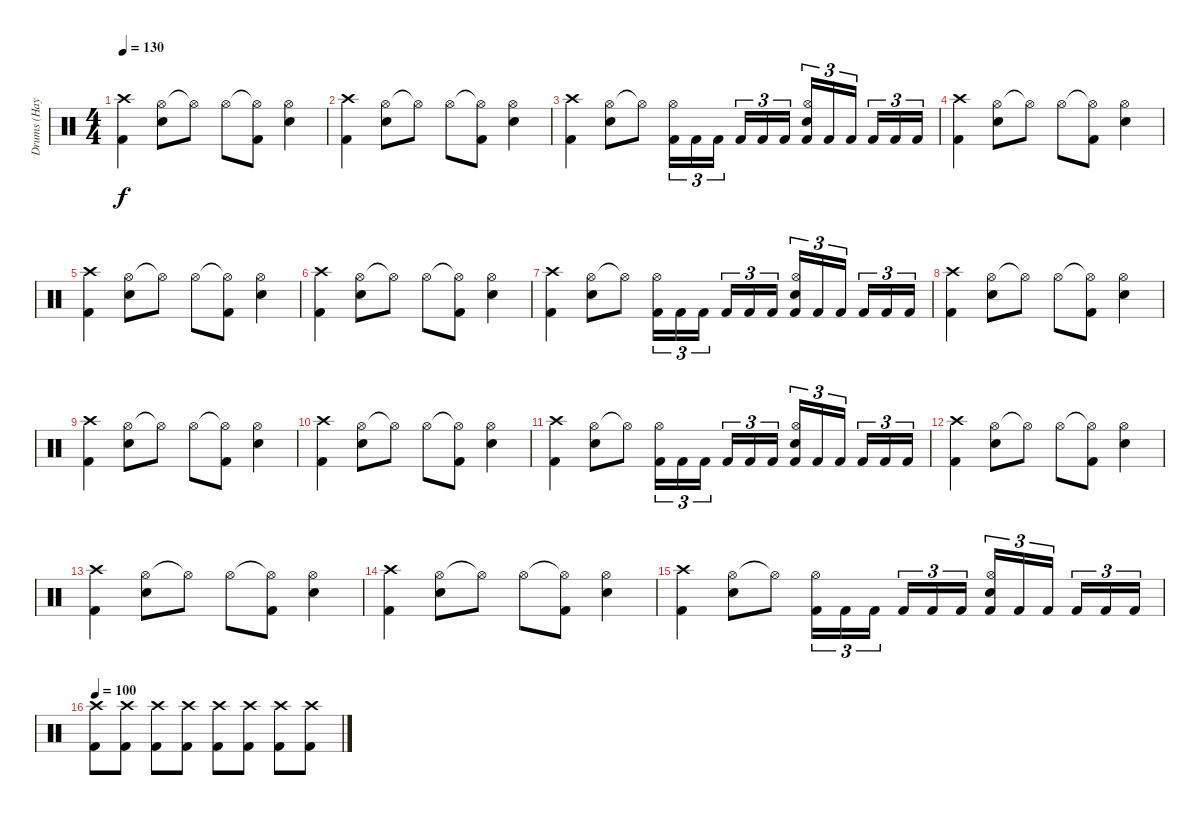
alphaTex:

\track ("Drums (Hayden)" "Drums (Hay") {instrument percussion}
\staff {score}
\articulation defaults
\ts (4 4)
\tempo 130
\clef neutral
\ks c
("Crash high (hit)" "Kick (hit) 2").4{dy f} ("Hi-Hat (open)" "Electric Snare (hit)").8 "Hi-Hat (open)"{t}.8 "Hi-Hat (open)".8 ("Hi-Hat (open)"{t} "Kick (hit) 2").8 ("Hi-Hat (open)" "Electric Snare (hit)").4 |
("Crash high (hit)" "Kick (hit) 2").4 ("Hi-Hat (open)" "Electric Snare (hit)").8 "Hi-Hat (open)"{t}.8 "Hi-Hat (open)".8 ("Hi-Hat (open)"{t} "Kick (hit) 2").8 ("Hi-Hat (open)" "Electric Snare (hit)").4 |
("Crash high (hit)" "Kick (hit) 2").4 ("Hi-Hat (open)" "Electric Snare (hit)").8 "Hi-Hat (open)"{t}.8 ("Kick (hit) 2" "Hi-Hat (open)").16{tu (3 2)} "Kick (hit) 2".16{tu (3 2)} "Kick (hit) 2".16{tu (3 2)} "Kick (hit) 2".16{tu (3 2)} "Kick (hit) 2".16{tu (3 2)} "Kick (hit) 2".16{tu (3 2)} ("Kick (hit) 2" "Hi-Hat (open)" "Electric Snare (hit)").16{tu (3 2)} "Kick (hit) 2".16{tu (3 2)} "Kick (hit) 2".16{tu (3 2)} "Kick (hit) 2".16{tu (3 2)} "Kick (hit) 2".16{tu (3 2)} "Kick (hit) 2".16{tu (3 2)} |
("Crash high (hit)" "Kick (hit) 2").4 ("Hi-Hat (open)" "Electric Snare (hit)").8 "Hi-Hat (open)"{t}.8 "Hi-Hat (open)".8 ("Hi-Hat (open)"{t} "Kick (hit) 2").8 ("Hi-Hat (open)" "Electric Snare (hit)").4 |
("Crash high (hit)" "Kick (hit) 2").4 ("Hi-Hat (open)" "Electric Snare (hit)").8 "Hi-Hat (open)"{t}.8 "Hi-Hat (open)".8 ("Hi-Hat (open)"{t} "Kick (hit) 2").8 ("Hi-Hat (open)" "Electric Snare (hit)").4 |
("Crash high (hit)" "Kick (hit) 2").4 ("Hi-Hat (open)" "Electric Snare (hit)").8 "Hi-Hat (open)"{t}.8 "Hi-Hat (open)".8 ("Hi-Hat (open)"{t} "Kick (hit) 2").8 ("Hi-Hat (open)" "Electric Snare (hit)").4 |
("Crash high (hit)" "Kick (hit) 2").4 ("Hi-Hat (open)" "Electric Snare (hit)").8 "Hi-Hat (open)"{t}.8 ("Kick (hit) 2" "Hi-Hat (open)").16{tu (3 2)} "Kick (hit) 2".16{tu (3 2)} "Kick (hit) 2".16{tu (3 2)} "Kick (hit) 2".16{tu (3 2)} "Kick (hit) 2".16{tu (3 2)} "Kick (hit) 2".16{tu (3 2)} ("Kick (hit) 2" "Hi-Hat (open)" "Electric Snare (hit)").16{tu (3 2)} "Kick (hit) 2".16{tu (3 2)} "Kick (hit) 2".16{tu (3 2)} "Kick (hit) 2".16{tu (3 2)} "Kick (hit) 2".16{tu (3 2)} "Kick (hit) 2".16{tu (3 2)} |
("Crash high (hit)" "Kick (hit) 2").4 ("Hi-Hat (open)" "Electric Snare (hit)").8 "Hi-Hat (open)"{t}.8 "Hi-Hat (open)".8 ("Hi-Hat (open)"{t} "Kick (hit) 2").8 ("Hi-Hat (open)" "Electric Snare (hit)").4 |
("Crash high (hit)" "Kick (hit) 2").4 ("Hi-Hat (open)" "Electric Snare (hit)").8 "Hi-Hat (open)"{t}.8 "Hi-Hat (open)".8 ("Hi-Hat (open)"{t} "Kick (hit) 2").8 ("Hi-Hat (open)" "Electric Snare (hit)").4 |
("Crash high (hit)" "Kick (hit) 2").4 ("Hi-Hat (open)" "Electric Snare (hit)").8 "Hi-Hat (open)"{t}.8 "Hi-Hat (open)".8 ("Hi-Hat (open)"{t} "Kick (hit) 2").8 ("Hi-Hat (open)" "Electric Snare (hit)").4 |
("Crash high (hit)" "Kick (hit) 2").4 ("Hi-Hat (open)" "Electric Snare (hit)").8 "Hi-Hat (open)"{t}.8 ("Kick (hit) 2" "Hi-Hat (open)").16{tu (3 2)} "Kick (hit) 2".16{tu (3 2)} "Kick (hit) 2".16{tu (3 2)} "Kick (hit) 2".16{tu (3 2)} "Kick (hit) 2".16{tu (3 2)} "Kick (hit) 2".16{tu (3 2)} ("Kick (hit) 2" "Hi-Hat (open)" "Electric Snare (hit)").16{tu (3 2)} "Kick (hit) 2".16{tu (3 2)} "Kick (hit) 2".16{tu (3 2)} "Kick (hit) 2".16{tu (3 2)} "Kick (hit) 2".16{tu (3 2)} "Kick (hit) 2".16{tu (3 2)} |
("Crash high (hit)" "Kick (hit) 2").4 ("Hi-Hat (open)" "Electric Snare (hit)").8 "Hi-Hat (open)"{t}.8 "Hi-Hat (open)".8 ("Hi-Hat (open)"{t} "Kick (hit) 2").8 ("Hi-Hat (open)" "Electric Snare (hit)").4 |
("Crash high (hit)" "Kick (hit) 2").4 ("Hi-Hat (open)" "Electric Snare (hit)").8 "Hi-Hat (open)"{t}.8 "Hi-Hat (open)".8 ("Hi-Hat (open)"{t} "Kick (hit) 2").8 ("Hi-Hat (open)" "Electric Snare (hit)").4 |
("Crash high (hit)" "Kick (hit) 2").4 ("Hi-Hat (open)" "Electric Snare (hit)").8 "Hi-Hat (open)"{t}.8 "Hi-Hat (open)".8 ("Hi-Hat (open)"{t} "Kick (hit) 2").8 ("Hi-Hat (open)" "Electric Snare (hit)").4 |
("Crash high (hit)" "Kick (hit) 2").4 ("Hi-Hat (open)" "Electric Snare (hit)").8 "Hi-Hat (open)"{t}.8 ("Kick (hit) 2" "Hi-Hat (open)").16{tu (3 2)} "Kick (hit) 2".16{tu (3 2)} "Kick (hit) 2".16{tu (3 2)} "Kick (hit) 2".16{tu (3 2)} "Kick (hit) 2".16{tu (3 2)} "Kick (hit) 2".16{tu (3 2)} ("Kick (hit) 2" "Hi-Hat (open)" "Electric Snare (hit)").16{tu (3 2)} "Kick (hit) 2".16{tu (3 2)} "Kick (hit) 2".16{tu (3 2)} "Kick (hit) 2".16{tu (3 2)} "Kick (hit) 2".16{tu (3 2)} "Kick (hit) 2".16{tu (3 2)} |
\tempo 100
("Crash high (hit)" "Kick (hit) 2").8 ("Crash high (hit)" "Kick (hit) 2").8 ("Crash high (hit)" "Kick (hit) 2").8 ("Crash high (hit)" "Kick (hit) 2").8 ("Crash high (hit)" "Kick (hit) 2").8 ("Crash high (hit)" "Kick (hit) 2").8 ("Crash high (hit)" "Kick (hit) 2").8 ("Crash high (hit)" "Kick (hit) 2").8
